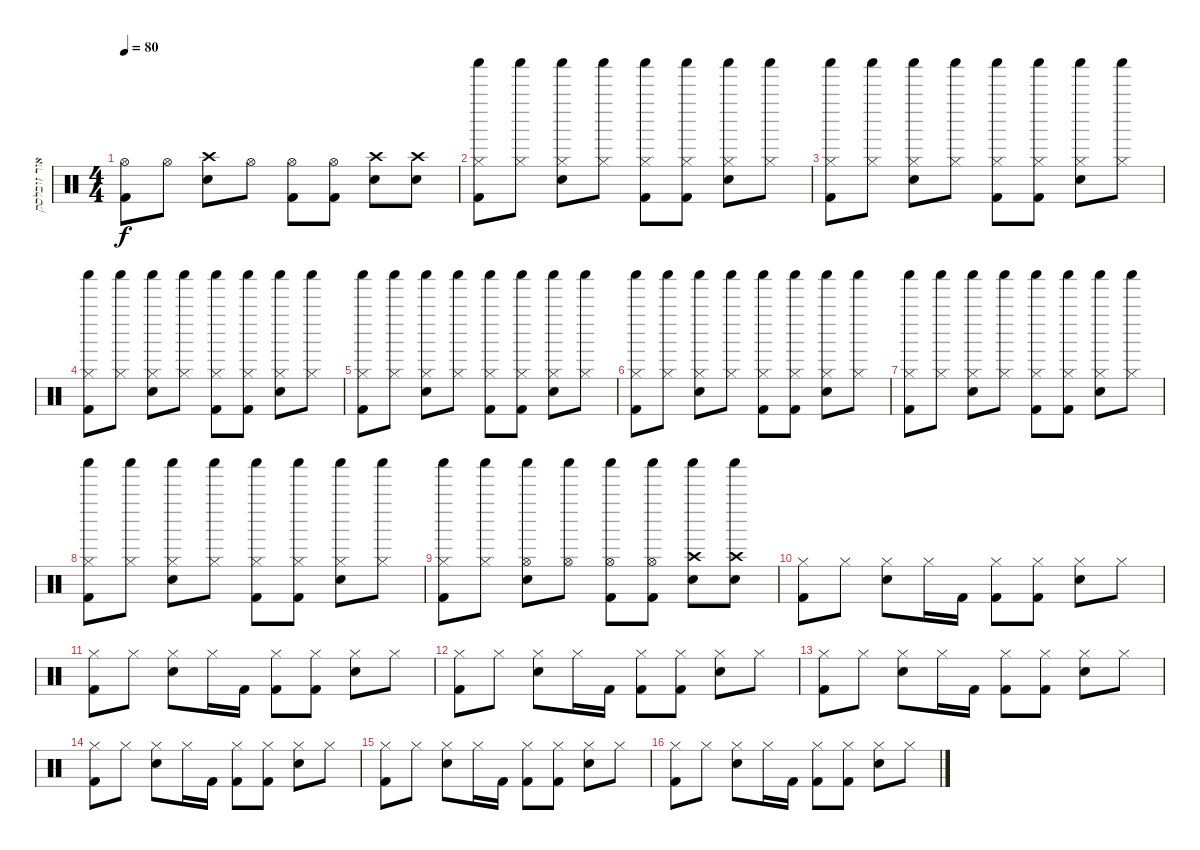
\track ("אור זובלסקי" "אור זובלסק") {instrument percussion}
\staff {score}
\articulation defaults
\ts (4 4)
\tempo 80
\clef neutral
\ks c
("Hi-Hat (open)" "Kick (hit) 2").8{dy f} "Hi-Hat (open)".8 ("Crash high (hit)" "Electric Snare (hit)").8 "Hi-Hat (open)".8 ("Hi-Hat (open)" "Kick (hit) 2").8 ("Hi-Hat (open)" "Kick (hit) 2").8 ("Crash high (hit)" "Electric Snare (hit)").8 ("Crash high (hit)" "Electric Snare (hit)").8 |
("Hi-Hat (closed)" "Shaker (hit)" "Kick (hit) 2").8 ("Hi-Hat (closed)" "Shaker (hit)").8 ("Hi-Hat (closed)" "Shaker (hit)" "Electric Snare (hit)").8 ("Hi-Hat (closed)" "Shaker (hit)").8 ("Hi-Hat (closed)" "Shaker (hit)" "Kick (hit) 2").8 ("Hi-Hat (closed)" "Shaker (hit)" "Kick (hit) 2").8 ("Hi-Hat (closed)" "Shaker (hit)" "Electric Snare (hit)").8 ("Hi-Hat (closed)" "Shaker (hit)").8 |
("Hi-Hat (closed)" "Shaker (hit)" "Kick (hit) 2").8 ("Hi-Hat (closed)" "Shaker (hit)").8 ("Hi-Hat (closed)" "Shaker (hit)" "Electric Snare (hit)").8 ("Hi-Hat (closed)" "Shaker (hit)").8 ("Hi-Hat (closed)" "Shaker (hit)" "Kick (hit) 2").8 ("Hi-Hat (closed)" "Shaker (hit)" "Kick (hit) 2").8 ("Hi-Hat (closed)" "Shaker (hit)" "Electric Snare (hit)").8 ("Hi-Hat (closed)" "Shaker (hit)").8 |
("Hi-Hat (closed)" "Shaker (hit)" "Kick (hit) 2").8 ("Hi-Hat (closed)" "Shaker (hit)").8 ("Hi-Hat (closed)" "Shaker (hit)" "Electric Snare (hit)").8 ("Hi-Hat (closed)" "Shaker (hit)").8 ("Hi-Hat (closed)" "Shaker (hit)" "Kick (hit) 2").8 ("Hi-Hat (closed)" "Shaker (hit)" "Kick (hit) 2").8 ("Hi-Hat (closed)" "Shaker (hit)" "Electric Snare (hit)").8 ("Hi-Hat (closed)" "Shaker (hit)").8 |
("Hi-Hat (closed)" "Shaker (hit)" "Kick (hit) 2").8 ("Hi-Hat (closed)" "Shaker (hit)").8 ("Hi-Hat (closed)" "Shaker (hit)" "Electric Snare (hit)").8 ("Hi-Hat (closed)" "Shaker (hit)").8 ("Hi-Hat (closed)" "Shaker (hit)" "Kick (hit) 2").8 ("Hi-Hat (closed)" "Shaker (hit)" "Kick (hit) 2").8 ("Hi-Hat (closed)" "Shaker (hit)" "Electric Snare (hit)").8 ("Hi-Hat (closed)" "Shaker (hit)").8 |
("Hi-Hat (closed)" "Shaker (hit)" "Kick (hit) 2").8 ("Hi-Hat (closed)" "Shaker (hit)").8 ("Hi-Hat (closed)" "Shaker (hit)" "Electric Snare (hit)").8 ("Hi-Hat (closed)" "Shaker (hit)").8 ("Hi-Hat (closed)" "Shaker (hit)" "Kick (hit) 2").8 ("Hi-Hat (closed)" "Shaker (hit)" "Kick (hit) 2").8 ("Hi-Hat (closed)" "Shaker (hit)" "Electric Snare (hit)").8 ("Hi-Hat (closed)" "Shaker (hit)").8 |
("Hi-Hat (closed)" "Shaker (hit)" "Kick (hit) 2").8 ("Hi-Hat (closed)" "Shaker (hit)").8 ("Hi-Hat (closed)" "Shaker (hit)" "Electric Snare (hit)").8 ("Hi-Hat (closed)" "Shaker (hit)").8 ("Hi-Hat (closed)" "Shaker (hit)" "Kick (hit) 2").8 ("Hi-Hat (closed)" "Shaker (hit)" "Kick (hit) 2").8 ("Hi-Hat (closed)" "Shaker (hit)" "Electric Snare (hit)").8 ("Hi-Hat (closed)" "Shaker (hit)").8 |
("Hi-Hat (closed)" "Shaker (hit)" "Kick (hit) 2").8 ("Hi-Hat (closed)" "Shaker (hit)").8 ("Hi-Hat (closed)" "Shaker (hit)" "Electric Snare (hit)").8 ("Hi-Hat (closed)" "Shaker (hit)").8 ("Hi-Hat (closed)" "Shaker (hit)" "Kick (hit) 2").8 ("Hi-Hat (closed)" "Shaker (hit)" "Kick (hit) 2").8 ("Hi-Hat (closed)" "Shaker (hit)" "Electric Snare (hit)").8 ("Hi-Hat (closed)" "Shaker (hit)").8 |
("Hi-Hat (closed)" "Shaker (hit)" "Kick (hit) 2").8 ("Hi-Hat (closed)" "Shaker (hit)").8 ("Hi-Hat (open)" "Shaker (hit)" "Electric Snare (hit)").8 ("Hi-Hat (open)" "Shaker (hit)").8 ("Hi-Hat (open)" "Shaker (hit)" "Kick (hit) 2").8 ("Hi-Hat (open)" "Shaker (hit)" "Kick (hit) 2").8 ("Crash high (hit)" "Shaker (hit)" "Electric Snare (hit)").8 ("Crash high (hit)" "Shaker (hit)" "Electric Snare (hit)").8 |
("Hi-Hat (closed)" "Kick (hit) 2").8 "Hi-Hat (closed)".8 ("Hi-Hat (closed)" "Snare (hit) 2").8 "Hi-Hat (closed)".16 "Kick (hit) 2".16 ("Hi-Hat (closed)" "Kick (hit) 2").8 ("Hi-Hat (closed)" "Kick (hit) 2").8 ("Hi-Hat (closed)" "Snare (hit) 2").8 "Hi-Hat (closed)".8 |
("Hi-Hat (closed)" "Kick (hit) 2").8 "Hi-Hat (closed)".8 ("Hi-Hat (closed)" "Snare (hit) 2").8 "Hi-Hat (closed)".16 "Kick (hit) 2".16 ("Hi-Hat (closed)" "Kick (hit) 2").8 ("Hi-Hat (closed)" "Kick (hit) 2").8 ("Hi-Hat (closed)" "Snare (hit) 2").8 "Hi-Hat (closed)".8 |
("Hi-Hat (closed)" "Kick (hit) 2").8 "Hi-Hat (closed)".8 ("Hi-Hat (closed)" "Snare (hit) 2").8 "Hi-Hat (closed)".16 "Kick (hit) 2".16 ("Hi-Hat (closed)" "Kick (hit) 2").8 ("Hi-Hat (closed)" "Kick (hit) 2").8 ("Hi-Hat (closed)" "Snare (hit) 2").8 "Hi-Hat (closed)".8 |
("Hi-Hat (closed)" "Kick (hit) 2").8 "Hi-Hat (closed)".8 ("Hi-Hat (closed)" "Snare (hit) 2").8 "Hi-Hat (closed)".16 "Kick (hit) 2".16 ("Hi-Hat (closed)" "Kick (hit) 2").8 ("Hi-Hat (closed)" "Kick (hit) 2").8 ("Hi-Hat (closed)" "Snare (hit) 2").8 "Hi-Hat (closed)".8 |
("Hi-Hat (closed)" "Kick (hit) 2").8 "Hi-Hat (closed)".8 ("Hi-Hat (closed)" "Snare (hit) 2").8 "Hi-Hat (closed)".16 "Kick (hit) 2".16 ("Hi-Hat (closed)" "Kick (hit) 2").8 ("Hi-Hat (closed)" "Kick (hit) 2").8 ("Hi-Hat (closed)" "Snare (hit) 2").8 "Hi-Hat (closed)".8 |
("Hi-Hat (closed)" "Kick (hit) 2").8 "Hi-Hat (closed)".8 ("Hi-Hat (closed)" "Snare (hit) 2").8 "Hi-Hat (closed)".16 "Kick (hit) 2".16 ("Hi-Hat (closed)" "Kick (hit) 2").8 ("Hi-Hat (closed)" "Kick (hit) 2").8 ("Hi-Hat (closed)" "Snare (hit) 2").8 "Hi-Hat (closed)".8 |
("Hi-Hat (closed)" "Kick (hit) 2").8 "Hi-Hat (closed)".8 ("Hi-Hat (closed)" "Snare (hit) 2").8 "Hi-Hat (closed)".16 "Kick (hit) 2".16 ("Hi-Hat (closed)" "Kick (hit) 2").8 ("Hi-Hat (closed)" "Kick (hit) 2").8 ("Hi-Hat (closed)" "Snare (hit) 2").8 "Hi-Hat (closed)".8
